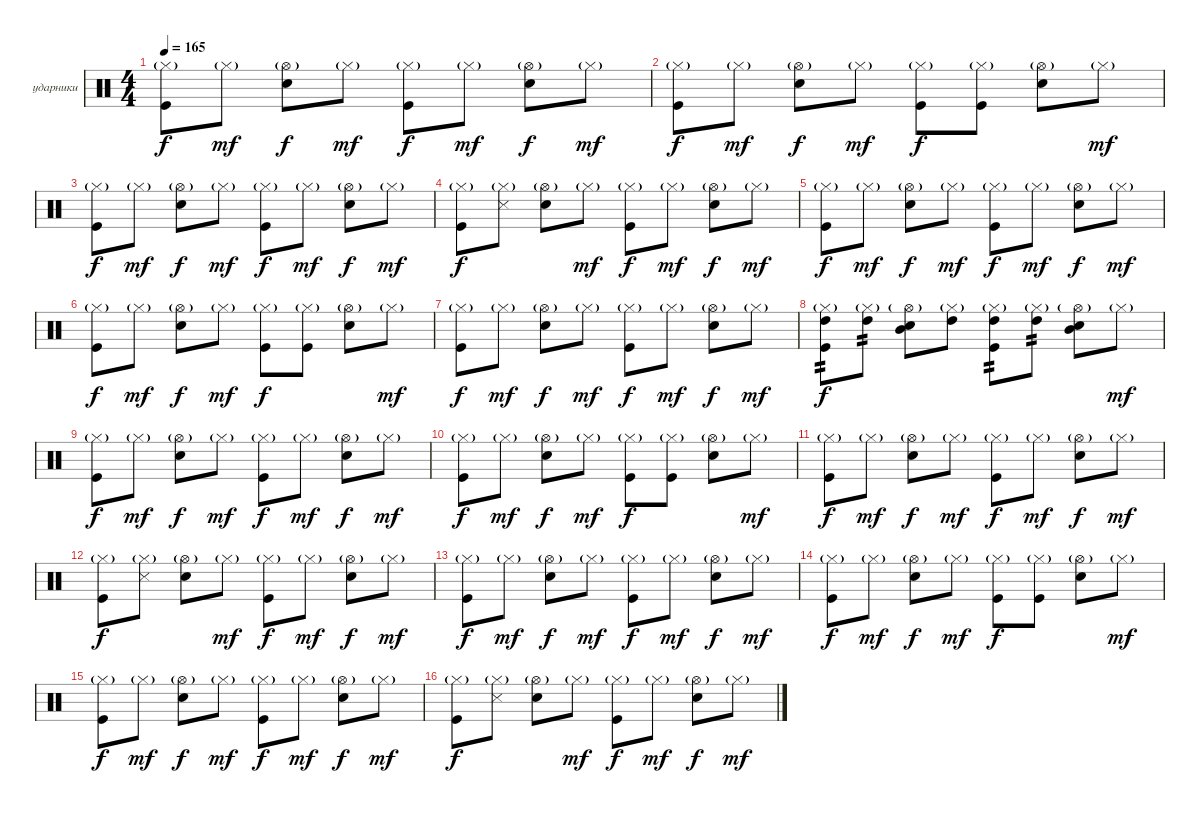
\bracketExtendMode groupsimilarinstruments
\firstSystemTrackNameOrientation horizontal
\otherSystemsTrackNameOrientation horizontal
\track ("Георгий Гурьянов" "ударники") {instrument percussion}
\staff {score}
\articulation defaults
\ts (4 4)
\tempo 165
\clef neutral
\scale
0.333333
\ks c
("Hi-Hat (closed)"{g} "Kick (hit)").8{dy f} "Hi-Hat (closed)"{g}.8{dy mf} ("Hi-Hat (open)"{g} "Snare (hit) 2").8{dy f} "Hi-Hat (closed)"{g}.8{dy mf} ("Hi-Hat (closed)"{g} "Kick (hit)").8{dy f} "Hi-Hat (closed)"{g}.8{dy mf} ("Hi-Hat (open)"{g} "Snare (hit) 2").8{dy f} "Hi-Hat (closed)"{g}.8{dy mf} |
\scale
0.333333 ("Hi-Hat (closed)"{g} "Kick (hit)").8{dy f} "Hi-Hat (closed)"{g}.8{dy mf} ("Hi-Hat (open)"{g} "Snare (hit) 2").8{dy f} "Hi-Hat (closed)"{g}.8{dy mf} ("Hi-Hat (closed)"{g} "Kick (hit)").8{dy f} ("Hi-Hat (closed)"{g} "Kick (hit)").8 ("Hi-Hat (open)"{g} "Snare (hit) 2").8 "Hi-Hat (closed)"{g}.8{dy mf} |
\scale
0.333333 ("Hi-Hat (closed)"{g} "Kick (hit)").8{dy f} "Hi-Hat (closed)"{g}.8{dy mf} ("Hi-Hat (open)"{g} "Snare (hit) 2").8{dy f} "Hi-Hat (closed)"{g}.8{dy mf} ("Hi-Hat (closed)"{g} "Kick (hit)").8{dy f} "Hi-Hat (closed)"{g}.8{dy mf} ("Hi-Hat (open)"{g} "Snare (hit) 2").8{dy f} "Hi-Hat (closed)"{g}.8{dy mf} |
\scale
0.333333 ("Hi-Hat (closed)"{g} "Kick (hit)").8{dy f} ("Hi-Hat (closed)"{g} "Snare (side stick) 3").8 ("Hi-Hat (open)"{g} "Snare (hit) 2").8 "Hi-Hat (closed)"{g}.8{dy mf} ("Hi-Hat (closed)"{g} "Kick (hit)").8{dy f} "Hi-Hat (closed)"{g}.8{dy mf} ("Hi-Hat (open)"{g} "Snare (hit) 2").8{dy f} "Hi-Hat (closed)"{g}.8{dy mf} |
\scale
0.333333 ("Hi-Hat (closed)"{g} "Kick (hit)").8{dy f} "Hi-Hat (closed)"{g}.8{dy mf} ("Hi-Hat (open)"{g} "Snare (hit) 2").8{dy f} "Hi-Hat (closed)"{g}.8{dy mf} ("Hi-Hat (closed)"{g} "Kick (hit)").8{dy f} "Hi-Hat (closed)"{g}.8{dy mf} ("Hi-Hat (open)"{g} "Snare (hit) 2").8{dy f} "Hi-Hat (closed)"{g}.8{dy mf} |
\scale
0.333333 ("Hi-Hat (closed)"{g} "Kick (hit)").8{dy f} "Hi-Hat (closed)"{g}.8{dy mf} ("Hi-Hat (open)"{g} "Snare (hit) 2").8{dy f} "Hi-Hat (closed)"{g}.8{dy mf} ("Hi-Hat (closed)"{g} "Kick (hit)").8{dy f} ("Hi-Hat (closed)"{g} "Kick (hit)").8 ("Hi-Hat (open)"{g} "Snare (hit) 2").8 "Hi-Hat (closed)"{g}.8{dy mf} |
\scale
0.333333 ("Hi-Hat (closed)"{g} "Kick (hit)").8{dy f} "Hi-Hat (closed)"{g}.8{dy mf} ("Hi-Hat (open)"{g} "Snare (hit) 2").8{dy f} "Hi-Hat (closed)"{g}.8{dy mf} ("Hi-Hat (closed)"{g} "Kick (hit)").8{dy f} "Hi-Hat (closed)"{g}.8{dy mf} ("Hi-Hat (open)"{g} "Snare (hit) 2").8{dy f} "Hi-Hat (closed)"{g}.8{dy mf} |
\scale
0.333333 ("Hi-Hat (closed)"{g} "High Tom (hit)" "Kick (hit)").8{tp 2 dy f} ("Hi-Hat (closed)"{g} "High Tom (hit)").8{tp 2} ("Hi-Hat (open)"{g} "Mid Tom (hit)" "Snare (hit) 2").8 ("Hi-Hat (closed)"{g} "High Tom (hit)").8 ("Hi-Hat (closed)"{g} "High Tom (hit)" "Kick (hit)").8{tp 2} ("Hi-Hat (closed)"{g} "High Tom (hit)").8{tp 2} ("Hi-Hat (open)"{g} "Mid Tom (hit)" "Snare (hit) 2").8 "Hi-Hat (closed)"{g}.8{dy mf} |
\scale
0.333333 ("Hi-Hat (closed)"{g} "Kick (hit)").8{dy f} "Hi-Hat (closed)"{g}.8{dy mf} ("Hi-Hat (open)"{g} "Snare (hit) 2").8{dy f} "Hi-Hat (closed)"{g}.8{dy mf} ("Hi-Hat (closed)"{g} "Kick (hit)").8{dy f} "Hi-Hat (closed)"{g}.8{dy mf} ("Hi-Hat (open)"{g} "Snare (hit) 2").8{dy f} "Hi-Hat (closed)"{g}.8{dy mf} |
\scale
0.333333 ("Hi-Hat (closed)"{g} "Kick (hit)").8{dy f} "Hi-Hat (closed)"{g}.8{dy mf} ("Hi-Hat (open)"{g} "Snare (hit) 2").8{dy f} "Hi-Hat (closed)"{g}.8{dy mf} ("Hi-Hat (closed)"{g} "Kick (hit)").8{dy f} ("Hi-Hat (closed)"{g} "Kick (hit)").8 ("Hi-Hat (open)"{g} "Snare (hit) 2").8 "Hi-Hat (closed)"{g}.8{dy mf} |
\scale
0.333333 ("Hi-Hat (closed)"{g} "Kick (hit)").8{dy f} "Hi-Hat (closed)"{g}.8{dy mf} ("Hi-Hat (open)"{g} "Snare (hit) 2").8{dy f} "Hi-Hat (closed)"{g}.8{dy mf} ("Hi-Hat (closed)"{g} "Kick (hit)").8{dy f} "Hi-Hat (closed)"{g}.8{dy mf} ("Hi-Hat (open)"{g} "Snare (hit) 2").8{dy f} "Hi-Hat (closed)"{g}.8{dy mf} |
\scale
0.333333 ("Hi-Hat (closed)"{g} "Kick (hit)").8{dy f} ("Hi-Hat (closed)"{g} "Snare (side stick) 3").8 ("Hi-Hat (open)"{g} "Snare (hit) 2").8 "Hi-Hat (closed)"{g}.8{dy mf} ("Hi-Hat (closed)"{g} "Kick (hit)").8{dy f} "Hi-Hat (closed)"{g}.8{dy mf} ("Hi-Hat (open)"{g} "Snare (hit) 2").8{dy f} "Hi-Hat (closed)"{g}.8{dy mf} |
\scale
0.333333 ("Hi-Hat (closed)"{g} "Kick (hit)").8{dy f} "Hi-Hat (closed)"{g}.8{dy mf} ("Hi-Hat (open)"{g} "Snare (hit) 2").8{dy f} "Hi-Hat (closed)"{g}.8{dy mf} ("Hi-Hat (closed)"{g} "Kick (hit)").8{dy f} "Hi-Hat (closed)"{g}.8{dy mf} ("Hi-Hat (open)"{g} "Snare (hit) 2").8{dy f} "Hi-Hat (closed)"{g}.8{dy mf} |
\scale
0.333333 ("Hi-Hat (closed)"{g} "Kick (hit)").8{dy f} "Hi-Hat (closed)"{g}.8{dy mf} ("Hi-Hat (open)"{g} "Snare (hit) 2").8{dy f} "Hi-Hat (closed)"{g}.8{dy mf} ("Hi-Hat (closed)"{g} "Kick (hit)").8{dy f} ("Hi-Hat (closed)"{g} "Kick (hit)").8 ("Hi-Hat (open)"{g} "Snare (hit) 2").8 "Hi-Hat (closed)"{g}.8{dy mf} |
\scale
0.333333 ("Hi-Hat (closed)"{g} "Kick (hit)").8{dy f} "Hi-Hat (closed)"{g}.8{dy mf} ("Hi-Hat (open)"{g} "Snare (hit) 2").8{dy f} "Hi-Hat (closed)"{g}.8{dy mf} ("Hi-Hat (closed)"{g} "Kick (hit)").8{dy f} "Hi-Hat (closed)"{g}.8{dy mf} ("Hi-Hat (open)"{g} "Snare (hit) 2").8{dy f} "Hi-Hat (closed)"{g}.8{dy mf} |
\scale
0.333333 ("Hi-Hat (closed)"{g} "Kick (hit)").8{dy f} ("Hi-Hat (closed)"{g} "Snare (side stick) 3").8 ("Hi-Hat (open)"{g} "Snare (hit) 2").8 "Hi-Hat (closed)"{g}.8{dy mf} ("Hi-Hat (closed)"{g} "Kick (hit)").8{dy f} "Hi-Hat (closed)"{g}.8{dy mf} ("Hi-Hat (open)"{g} "Snare (hit) 2").8{dy f} "Hi-Hat (closed)"{g}.8{dy mf}
